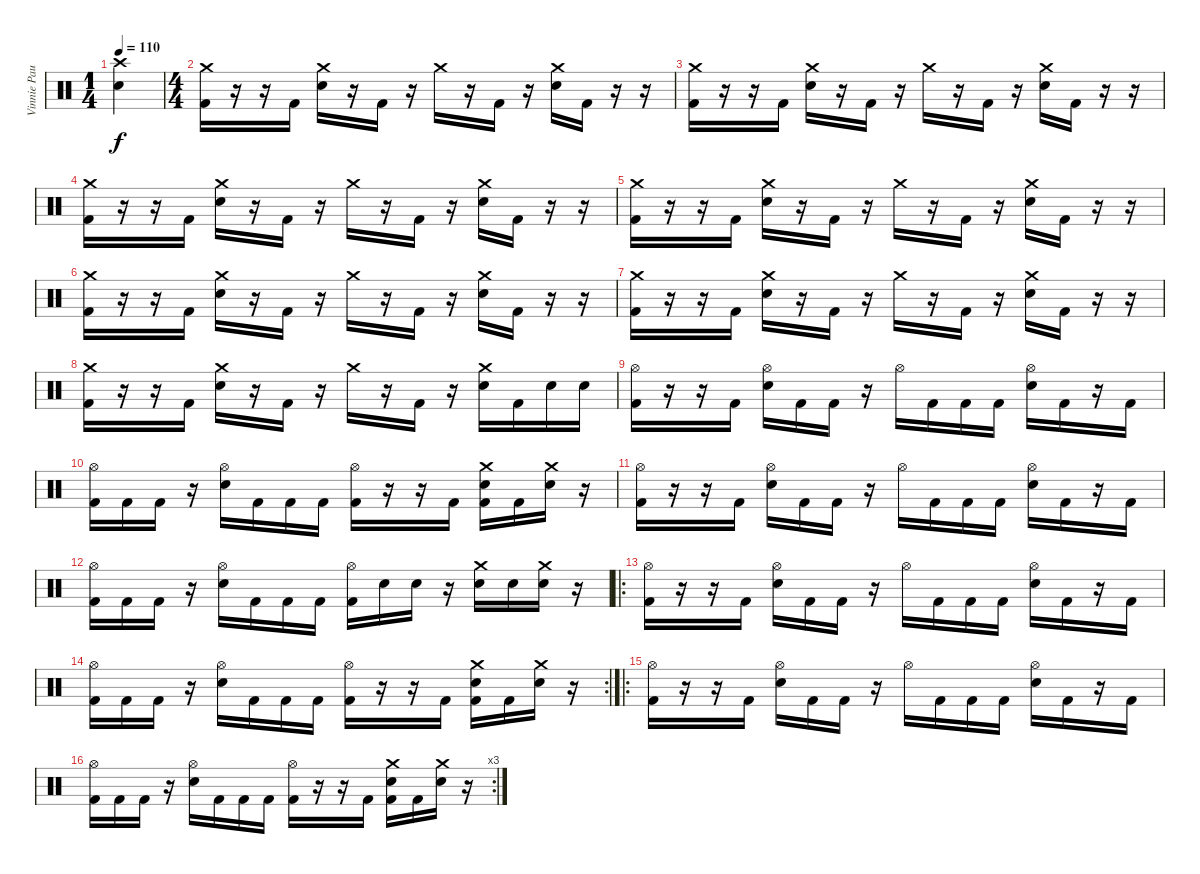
\track ("Vinnie Paul" "Vinnie Pau") {instrument percussion}
\staff {score}
\articulation defaults
\ts (1 4)
\tempo 110
\clef neutral
\ks c
("Electric Snare (hit)" "Crash high (hit)").4{dy f} |
\ts (4 4)
("Crash medium (hit)" "Kick (hit) 2").16 r.16 r.16 "Kick (hit) 2".16 ("Crash medium (hit)" "Electric Snare (hit)").16 r.16 "Kick (hit) 2".16 r.16 "Crash medium (hit)".16 r.16 "Kick (hit) 2".16 r.16 ("Crash medium (hit)" "Electric Snare (hit)").16 "Kick (hit) 2".16 r.16 r.16 |
("Crash medium (hit)" "Kick (hit) 2").16 r.16 r.16 "Kick (hit) 2".16 ("Crash medium (hit)" "Electric Snare (hit)").16 r.16 "Kick (hit) 2".16 r.16 "Crash medium (hit)".16 r.16 "Kick (hit) 2".16 r.16 ("Crash medium (hit)" "Electric Snare (hit)").16 "Kick (hit) 2".16 r.16 r.16 |
("Crash medium (hit)" "Kick (hit) 2").16 r.16 r.16 "Kick (hit) 2".16 ("Crash medium (hit)" "Electric Snare (hit)").16 r.16 "Kick (hit) 2".16 r.16 "Crash medium (hit)".16 r.16 "Kick (hit) 2".16 r.16 ("Crash medium (hit)" "Electric Snare (hit)").16 "Kick (hit) 2".16 r.16 r.16 |
("Crash medium (hit)" "Kick (hit) 2").16 r.16 r.16 "Kick (hit) 2".16 ("Crash medium (hit)" "Electric Snare (hit)").16 r.16 "Kick (hit) 2".16 r.16 "Crash medium (hit)".16 r.16 "Kick (hit) 2".16 r.16 ("Crash medium (hit)" "Electric Snare (hit)").16 "Kick (hit) 2".16 r.16 r.16 |
("Crash medium (hit)" "Kick (hit) 2").16 r.16 r.16 "Kick (hit) 2".16 ("Crash medium (hit)" "Electric Snare (hit)").16 r.16 "Kick (hit) 2".16 r.16 "Crash medium (hit)".16 r.16 "Kick (hit) 2".16 r.16 ("Crash medium (hit)" "Electric Snare (hit)").16 "Kick (hit) 2".16 r.16 r.16 |
("Crash medium (hit)" "Kick (hit) 2").16 r.16 r.16 "Kick (hit) 2".16 ("Crash medium (hit)" "Electric Snare (hit)").16 r.16 "Kick (hit) 2".16 r.16 "Crash medium (hit)".16 r.16 "Kick (hit) 2".16 r.16 ("Crash medium (hit)" "Electric Snare (hit)").16 "Kick (hit) 2".16 r.16 r.16 |
("Crash medium (hit)" "Kick (hit) 2").16 r.16 r.16 "Kick (hit) 2".16 ("Crash medium (hit)" "Electric Snare (hit)").16 r.16 "Kick (hit) 2".16 r.16 "Crash medium (hit)".16 r.16 "Kick (hit) 2".16 r.16 ("Crash medium (hit)" "Electric Snare (hit)").16 "Kick (hit) 2".16 "Electric Snare (hit)".16 "Electric Snare (hit)".16 |
("Hi-Hat (open)" "Kick (hit) 2").16 r.16 r.16 "Kick (hit) 2".16 ("Hi-Hat (open)" "Electric Snare (hit)").16 "Kick (hit) 2".16 "Kick (hit) 2".16 r.16 "Hi-Hat (open)".16 "Kick (hit) 2".16 "Kick (hit) 2".16 "Kick (hit) 2".16 ("Hi-Hat (open)" "Electric Snare (hit)").16 "Kick (hit) 2".16 r.16 "Kick (hit) 2".16 |
("Hi-Hat (open)" "Kick (hit) 2").16 "Kick (hit) 2".16 "Kick (hit) 2".16 r.16 ("Hi-Hat (open)" "Electric Snare (hit)").16 "Kick (hit) 2".16 "Kick (hit) 2".16 "Kick (hit) 2".16 ("Hi-Hat (open)" "Kick (hit) 2").16 r.16 r.16 "Kick (hit) 2".16 ("Crash medium (hit)" "Electric Snare (hit)" "Kick (hit) 2").16 "Kick (hit) 2".16 ("Crash medium (hit)" "Electric Snare (hit)").16 r.16 |
("Hi-Hat (open)" "Kick (hit) 2").16 r.16 r.16 "Kick (hit) 2".16 ("Hi-Hat (open)" "Electric Snare (hit)").16 "Kick (hit) 2".16 "Kick (hit) 2".16 r.16 "Hi-Hat (open)".16 "Kick (hit) 2".16 "Kick (hit) 2".16 "Kick (hit) 2".16 ("Hi-Hat (open)" "Electric Snare (hit)").16 "Kick (hit) 2".16 r.16 "Kick (hit) 2".16 |
("Hi-Hat (open)" "Kick (hit) 2").16 "Kick (hit) 2".16 "Kick (hit) 2".16 r.16 ("Hi-Hat (open)" "Electric Snare (hit)").16 "Kick (hit) 2".16 "Kick (hit) 2".16 "Kick (hit) 2".16 ("Hi-Hat (open)" "Kick (hit) 2").16 "Electric Snare (hit)".16 "Electric Snare (hit)".16 r.16 ("Crash medium (hit)" "Electric Snare (hit)").16 "Electric Snare (hit)".16 ("Crash medium (hit)" "Electric Snare (hit)").16 r.16 |
\ro
("Hi-Hat (open)" "Kick (hit) 2").16 r.16 r.16 "Kick (hit) 2".16 ("Hi-Hat (open)" "Electric Snare (hit)").16 "Kick (hit) 2".16 "Kick (hit) 2".16 r.16 "Hi-Hat (open)".16 "Kick (hit) 2".16 "Kick (hit) 2".16 "Kick (hit) 2".16 ("Hi-Hat (open)" "Electric Snare (hit)").16 "Kick (hit) 2".16 r.16 "Kick (hit) 2".16 |
\rc 2
("Hi-Hat (open)" "Kick (hit) 2").16 "Kick (hit) 2".16 "Kick (hit) 2".16 r.16 ("Hi-Hat (open)" "Electric Snare (hit)").16 "Kick (hit) 2".16 "Kick (hit) 2".16 "Kick (hit) 2".16 ("Hi-Hat (open)" "Kick (hit) 2").16 r.16 r.16 "Kick (hit) 2".16 ("Crash medium (hit)" "Electric Snare (hit)" "Kick (hit) 2").16 "Kick (hit) 2".16 ("Crash medium (hit)" "Electric Snare (hit)").16 r.16 |
\ro
("Hi-Hat (open)" "Kick (hit) 2").16 r.16 r.16 "Kick (hit) 2".16 ("Hi-Hat (open)" "Electric Snare (hit)").16 "Kick (hit) 2".16 "Kick (hit) 2".16 r.16 "Hi-Hat (open)".16 "Kick (hit) 2".16 "Kick (hit) 2".16 "Kick (hit) 2".16 ("Hi-Hat (open)" "Electric Snare (hit)").16 "Kick (hit) 2".16 r.16 "Kick (hit) 2".16 |
\rc 3
("Hi-Hat (open)" "Kick (hit) 2").16 "Kick (hit) 2".16 "Kick (hit) 2".16 r.16 ("Hi-Hat (open)" "Electric Snare (hit)").16 "Kick (hit) 2".16 "Kick (hit) 2".16 "Kick (hit) 2".16 ("Hi-Hat (open)" "Kick (hit) 2").16 r.16 r.16 "Kick (hit) 2".16 ("Crash medium (hit)" "Electric Snare (hit)" "Kick (hit) 2").16 "Kick (hit) 2".16 ("Crash medium (hit)" "Electric Snare (hit)").16 r.16
